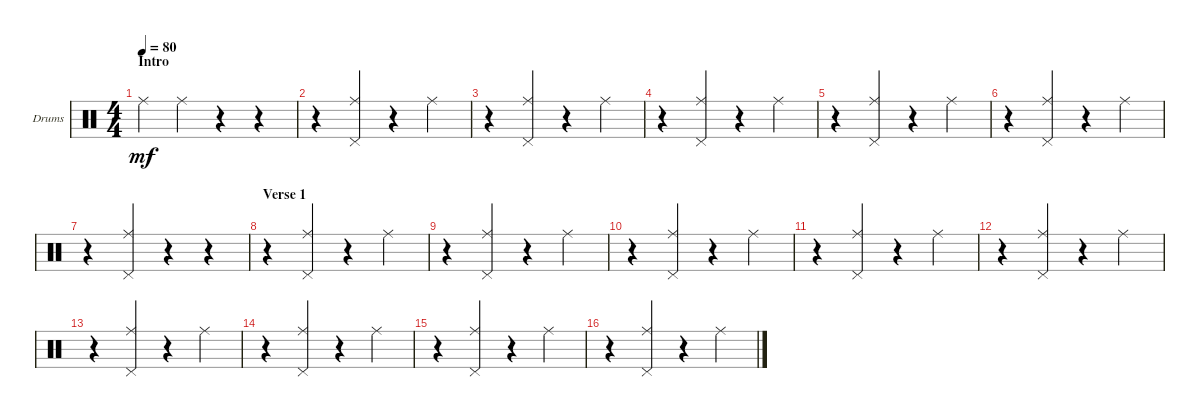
\defaultSystemsLayout 4
\bracketExtendMode groupsimilarinstruments
\firstSystemTrackNameOrientation horizontal
\otherSystemsTrackNameOrientation horizontal
\track ("Drumkit" "Drums") {instrument percussion}
\staff {score}
\articulation defaults
\ts (4 4)
\section ("" "Intro")
\tempo 80
\clef neutral
\ks c "Ride (middle)".4{dy mf} "Ride (middle)".4
r.4 r.4 |
r.4 ("Pedal Hi-Hat (hit)" "Ride (middle)").4 r.4 "Ride (middle)".4 |
r.4 ("Pedal Hi-Hat (hit)" "Ride (middle)").4 r.4 "Ride (middle)".4 |
r.4 ("Pedal Hi-Hat (hit)" "Ride (middle)").4 r.4 "Ride (middle)".4 |
r.4 ("Pedal Hi-Hat (hit)" "Ride (middle)").4 r.4 "Ride (middle)".4 |
r.4 ("Pedal Hi-Hat (hit)" "Ride (middle)").4 r.4 "Ride (middle)".4 |
r.4 ("Pedal Hi-Hat (hit)" "Ride (middle)").4 r.4 r.4 |
\section ("" "Verse 1")
r.4 ("Pedal Hi-Hat (hit)" "Ride (middle)").4 r.4 "Ride (middle)".4 |
r.4 ("Pedal Hi-Hat (hit)" "Ride (middle)").4 r.4 "Ride (middle)".4 |
r.4 ("Pedal Hi-Hat (hit)" "Ride (middle)").4 r.4 "Ride (middle)".4 |
r.4 ("Pedal Hi-Hat (hit)" "Ride (middle)").4 r.4 "Ride (middle)".4 |
r.4 ("Pedal Hi-Hat (hit)" "Ride (middle)").4 r.4 "Ride (middle)".4 |
r.4 ("Pedal Hi-Hat (hit)" "Ride (middle)").4 r.4 "Ride (middle)".4 |
r.4 ("Pedal Hi-Hat (hit)" "Ride (middle)").4 r.4 "Ride (middle)".4 |
r.4 ("Pedal Hi-Hat (hit)" "Ride (middle)").4 r.4 "Ride (middle)".4 |
r.4 ("Pedal Hi-Hat (hit)" "Ride (middle)").4 r.4 "Ride (middle)".4
